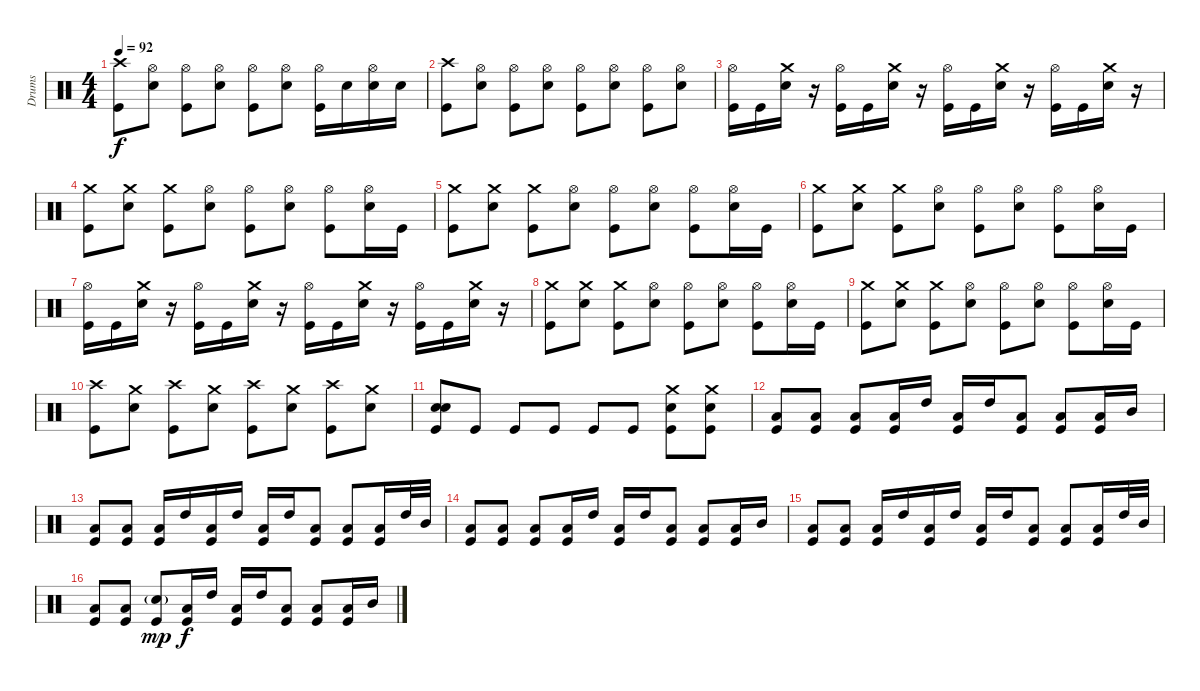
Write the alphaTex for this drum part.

\track ("Drums" "Drums") {instrument percussion}
\staff {score}
\articulation defaults
\ts (4 4)
\tempo 92
\clef neutral
\ks c
("Crash high (hit)" "Kick (hit)").8{dy f} ("Hi-Hat (open)" "Electric Snare (hit)").8 ("Hi-Hat (open)" "Kick (hit)").8 ("Hi-Hat (open)" "Electric Snare (hit)").8 ("Hi-Hat (open)" "Kick (hit)").8 ("Hi-Hat (open)" "Electric Snare (hit)").8 ("Hi-Hat (open)" "Kick (hit)").16 "Electric Snare (hit)".16 ("Hi-Hat (open)" "Electric Snare (hit)").16 "Electric Snare (hit)".16 |
("Crash high (hit)" "Kick (hit)").8 ("Hi-Hat (open)" "Electric Snare (hit)").8 ("Hi-Hat (open)" "Kick (hit)").8 ("Hi-Hat (open)" "Electric Snare (hit)").8 ("Hi-Hat (open)" "Kick (hit)").8 ("Hi-Hat (open)" "Electric Snare (hit)").8 ("Hi-Hat (open)" "Kick (hit)").8 ("Hi-Hat (open)" "Electric Snare (hit)").8 |
("Hi-Hat (open)" "Kick (hit)").16 "Kick (hit)".16 ("Crash medium (hit)" "Electric Snare (hit)").16 r.16 ("Hi-Hat (open)" "Kick (hit)").16 "Kick (hit)".16 ("Crash medium (hit)" "Electric Snare (hit)").16 r.16 ("Hi-Hat (open)" "Kick (hit)").16 "Kick (hit)".16 ("Crash medium (hit)" "Electric Snare (hit)").16 r.16 ("Hi-Hat (open)" "Kick (hit)").16 "Kick (hit)".16 ("Crash medium (hit)" "Electric Snare (hit)").16 r.16 |
("Crash medium (hit)" "Kick (hit)").8 ("Crash medium (hit)" "Electric Snare (hit)").8 ("Crash medium (hit)" "Kick (hit)").8 ("Hi-Hat (open)" "Electric Snare (hit)").8 ("Hi-Hat (open)" "Kick (hit)").8 ("Hi-Hat (open)" "Electric Snare (hit)").8 ("Hi-Hat (open)" "Kick (hit)").8 ("Hi-Hat (open)" "Electric Snare (hit)").16 "Kick (hit)".16 |
("Crash medium (hit)" "Kick (hit)").8 ("Crash medium (hit)" "Electric Snare (hit)").8 ("Crash medium (hit)" "Kick (hit)").8 ("Hi-Hat (open)" "Electric Snare (hit)").8 ("Hi-Hat (open)" "Kick (hit)").8 ("Hi-Hat (open)" "Electric Snare (hit)").8 ("Hi-Hat (open)" "Kick (hit)").8 ("Hi-Hat (open)" "Electric Snare (hit)").16 "Kick (hit)".16 |
("Crash medium (hit)" "Kick (hit)").8 ("Crash medium (hit)" "Electric Snare (hit)").8 ("Crash medium (hit)" "Kick (hit)").8 ("Hi-Hat (open)" "Electric Snare (hit)").8 ("Hi-Hat (open)" "Kick (hit)").8 ("Hi-Hat (open)" "Electric Snare (hit)").8 ("Hi-Hat (open)" "Kick (hit)").8 ("Hi-Hat (open)" "Electric Snare (hit)").16 "Kick (hit)".16 |
("Hi-Hat (open)" "Kick (hit)").16 "Kick (hit)".16 ("Crash medium (hit)" "Electric Snare (hit)").16 r.16 ("Hi-Hat (open)" "Kick (hit)").16 "Kick (hit)".16 ("Crash medium (hit)" "Electric Snare (hit)").16 r.16 ("Hi-Hat (open)" "Kick (hit)").16 "Kick (hit)".16 ("Crash medium (hit)" "Electric Snare (hit)").16 r.16 ("Hi-Hat (open)" "Kick (hit)").16 "Kick (hit)".16 ("Crash medium (hit)" "Electric Snare (hit)").16 r.16 |
("Crash medium (hit)" "Kick (hit)").8 ("Crash medium (hit)" "Electric Snare (hit)").8 ("Crash medium (hit)" "Kick (hit)").8 ("Hi-Hat (open)" "Electric Snare (hit)").8 ("Hi-Hat (open)" "Kick (hit)").8 ("Hi-Hat (open)" "Electric Snare (hit)").8 ("Hi-Hat (open)" "Kick (hit)").8 ("Hi-Hat (open)" "Electric Snare (hit)").16 "Kick (hit)".16 |
("Crash medium (hit)" "Kick (hit)").8 ("Crash medium (hit)" "Electric Snare (hit)").8 ("Crash medium (hit)" "Kick (hit)").8 ("Hi-Hat (open)" "Electric Snare (hit)").8 ("Hi-Hat (open)" "Kick (hit)").8 ("Hi-Hat (open)" "Electric Snare (hit)").8 ("Hi-Hat (open)" "Kick (hit)").8 ("Hi-Hat (open)" "Electric Snare (hit)").16 "Kick (hit)".16 |
("Crash high (hit)" "Kick (hit)").8 ("Crash medium (hit)" "Electric Snare (hit)").8 ("Crash high (hit)" "Kick (hit)").8 ("Crash medium (hit)" "Electric Snare (hit)").8 ("Crash high (hit)" "Kick (hit)").8 ("Crash medium (hit)" "Electric Snare (hit)").8 ("Crash high (hit)" "Kick (hit)").8 ("Crash medium (hit)" "Electric Snare (hit)").8 |
("Electric Snare (hit)" "Electric Snare (hit)" "Kick (hit)").8 "Kick (hit)".8 "Kick (hit)".8 "Kick (hit)".8 "Kick (hit)".8 "Kick (hit)".8 ("Crash medium (hit)" "Electric Snare (hit)" "Kick (hit)").8 ("Crash medium (hit)" "Electric Snare (hit)" "Kick (hit)").8 |
("Low Tom (hit)" "Kick (hit)").8 ("Low Tom (hit)" "Kick (hit)").8 ("Low Tom (hit)" "Kick (hit)").8 ("Low Tom (hit)" "Kick (hit)").16 "High Tom (hit)".16 ("Low Tom (hit)" "Kick (hit)").16 "High Tom (hit)".16 ("Low Tom (hit)" "Kick (hit)").8 ("Low Tom (hit)" "Kick (hit)").8 ("Low Tom (hit)" "Kick (hit)").16 "Mid Tom (hit)".16 |
("Low Tom (hit)" "Kick (hit)").8 ("Low Tom (hit)" "Kick (hit)").8 ("Low Tom (hit)" "Kick (hit)").16 "High Tom (hit)".16 ("Low Tom (hit)" "Kick (hit)").16 "High Tom (hit)".16 ("Low Tom (hit)" "Kick (hit)").16 "High Tom (hit)".16 ("Low Tom (hit)" "Kick (hit)").8 ("Low Tom (hit)" "Kick (hit)").8 ("Low Tom (hit)" "Kick (hit)").16 "High Tom (hit)".32 "Mid Tom (hit)".32 |
("Low Tom (hit)" "Kick (hit)").8 ("Low Tom (hit)" "Kick (hit)").8 ("Low Tom (hit)" "Kick (hit)").8 ("Low Tom (hit)" "Kick (hit)").16 "High Tom (hit)".16 ("Low Tom (hit)" "Kick (hit)").16 "High Tom (hit)".16 ("Low Tom (hit)" "Kick (hit)").8 ("Low Tom (hit)" "Kick (hit)").8 ("Low Tom (hit)" "Kick (hit)").16 "Mid Tom (hit)".16 |
("Low Tom (hit)" "Kick (hit)").8 ("Low Tom (hit)" "Kick (hit)").8 ("Low Tom (hit)" "Kick (hit)").16 "High Tom (hit)".16 ("Low Tom (hit)" "Kick (hit)").16 "High Tom (hit)".16 ("Low Tom (hit)" "Kick (hit)").16 "High Tom (hit)".16 ("Low Tom (hit)" "Kick (hit)").8 ("Low Tom (hit)" "Kick (hit)").8 ("Low Tom (hit)" "Kick (hit)").16 "High Tom (hit)".32 "Mid Tom (hit)".32 |
("Low Tom (hit)" "Kick (hit)").8 ("Low Tom (hit)" "Kick (hit)").8 ("Snare (hit) 2"{g} "Kick (hit)").8{dy mp} ("Low Tom (hit)" "Kick (hit)").16{dy f} "High Tom (hit)".16 ("Low Tom (hit)" "Kick (hit)").16 "High Tom (hit)".16 ("Low Tom (hit)" "Kick (hit)").8 ("Low Tom (hit)" "Kick (hit)").8 ("Low Tom (hit)" "Kick (hit)").16 "Mid Tom (hit)".16
